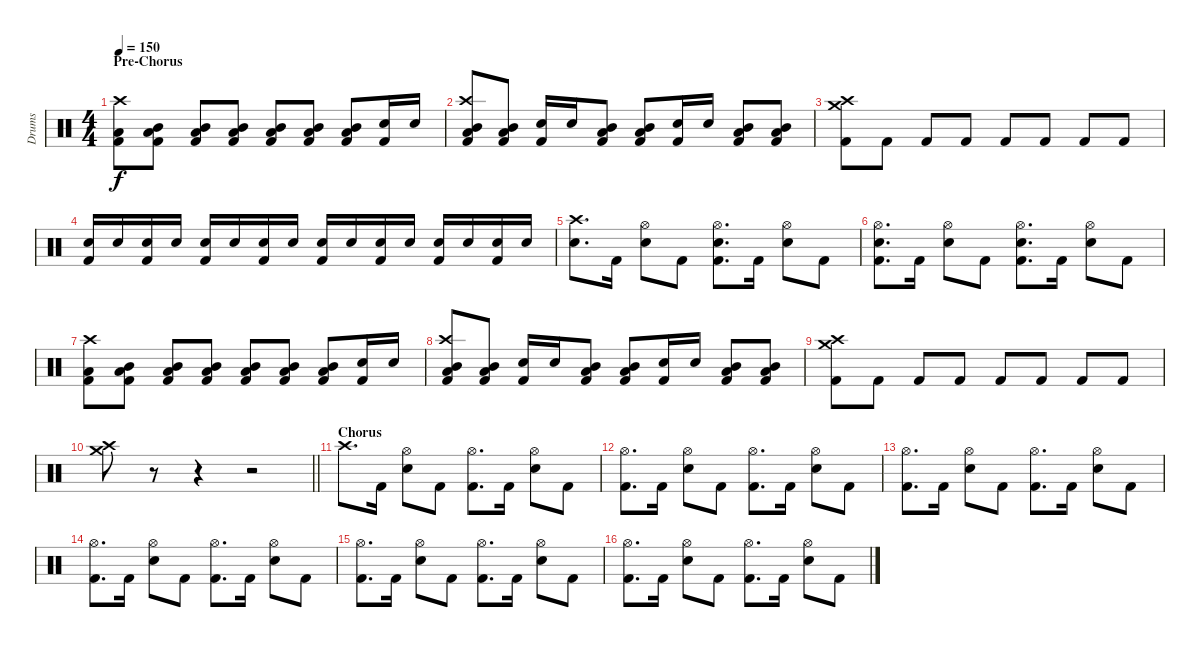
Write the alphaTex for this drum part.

\track ("Drums" "Drums") {instrument percussion}
\staff {score}
\articulation defaults
\ts (4 4)
\section ("" "Pre-Chorus")
\tempo 150
\clef neutral
\ks c
("Kick (hit) 2" "Low Tom (hit)" "Crash high (hit)").8{dy f} ("Kick (hit) 2" "Low Tom (hit)" "Mid Tom (hit)").8 ("Kick (hit) 2" "Low Tom (hit)" "Mid Tom (hit)").8 ("Kick (hit) 2" "Low Tom (hit)" "Mid Tom (hit)").8 ("Kick (hit) 2" "Low Tom (hit)" "Mid Tom (hit)").8 ("Kick (hit) 2" "Low Tom (hit)" "Mid Tom (hit)").8 ("Kick (hit) 2" "Low Tom (hit)" "Mid Tom (hit)").8 ("Kick (hit) 2" "Snare (hit) 2").16 "Snare (hit) 2".16 |
("Kick (hit) 2" "Low Tom (hit)" "Mid Tom (hit)" "Crash high (hit)").8 ("Kick (hit) 2" "Low Tom (hit)" "Mid Tom (hit)").8 ("Kick (hit) 2" "Snare (hit) 2").16 "Snare (hit) 2".16 ("Kick (hit) 2" "Low Tom (hit)" "Mid Tom (hit)").8 ("Kick (hit) 2" "Low Tom (hit)" "Mid Tom (hit)").8 ("Kick (hit) 2" "Snare (hit) 2").16 "Snare (hit) 2".16 ("Kick (hit) 2" "Low Tom (hit)" "Mid Tom (hit)").8 ("Kick (hit) 2" "Low Tom (hit)" "Mid Tom (hit)").8 |
("Kick (hit) 2" "Crash high (hit)" "Crash medium (hit)").8 "Kick (hit) 2".8 "Kick (hit) 2".8 "Kick (hit) 2".8 "Kick (hit) 2".8 "Kick (hit) 2".8 "Kick (hit) 2".8 "Kick (hit) 2".8 |
("Kick (hit) 2" "Snare (hit) 2").16 "Snare (hit) 2".16 ("Kick (hit) 2" "Snare (hit) 2").16 "Snare (hit) 2".16 ("Kick (hit) 2" "Snare (hit) 2").16 "Snare (hit) 2".16 ("Kick (hit) 2" "Snare (hit) 2").16 "Snare (hit) 2".16 ("Kick (hit) 2" "Snare (hit) 2").16 "Snare (hit) 2".16 ("Kick (hit) 2" "Snare (hit) 2").16 "Snare (hit) 2".16 ("Kick (hit) 2" "Snare (hit) 2").16 "Snare (hit) 2".16 ("Kick (hit) 2" "Snare (hit) 2").16 "Snare (hit) 2".16 |
("Snare (hit) 2" "Crash high (hit)").8{d} "Kick (hit) 2".16 ("Snare (hit) 2" "Hi-Hat (open)").8 "Kick (hit) 2".8 ("Kick (hit) 2" "Snare (hit) 2" "Hi-Hat (open)").8{d} "Kick (hit) 2".16 ("Snare (hit) 2" "Hi-Hat (open)").8 "Kick (hit) 2".8 |
("Kick (hit) 2" "Snare (hit) 2" "Hi-Hat (open)").8{d} "Kick (hit) 2".16 ("Snare (hit) 2" "Hi-Hat (open)").8 "Kick (hit) 2".8 ("Kick (hit) 2" "Snare (hit) 2" "Hi-Hat (open)").8{d} "Kick (hit) 2".16 ("Snare (hit) 2" "Hi-Hat (open)").8 "Kick (hit) 2".8 |
("Kick (hit) 2" "Low Tom (hit)" "Crash high (hit)").8 ("Kick (hit) 2" "Low Tom (hit)" "Mid Tom (hit)").8 ("Kick (hit) 2" "Low Tom (hit)" "Mid Tom (hit)").8 ("Kick (hit) 2" "Low Tom (hit)" "Mid Tom (hit)").8 ("Kick (hit) 2" "Low Tom (hit)" "Mid Tom (hit)").8 ("Kick (hit) 2" "Low Tom (hit)" "Mid Tom (hit)").8 ("Kick (hit) 2" "Low Tom (hit)" "Mid Tom (hit)").8 ("Kick (hit) 2" "Snare (hit) 2").16 "Snare (hit) 2".16 |
("Kick (hit) 2" "Low Tom (hit)" "Mid Tom (hit)" "Crash high (hit)").8 ("Kick (hit) 2" "Low Tom (hit)" "Mid Tom (hit)").8 ("Kick (hit) 2" "Snare (hit) 2").16 "Snare (hit) 2".16 ("Kick (hit) 2" "Low Tom (hit)" "Mid Tom (hit)").8 ("Kick (hit) 2" "Low Tom (hit)" "Mid Tom (hit)").8 ("Kick (hit) 2" "Snare (hit) 2").16 "Snare (hit) 2".16 ("Kick (hit) 2" "Low Tom (hit)" "Mid Tom (hit)").8 ("Kick (hit) 2" "Low Tom (hit)" "Mid Tom (hit)").8 |
("Kick (hit) 2" "Crash high (hit)" "Crash medium (hit)").8 "Kick (hit) 2".8 "Kick (hit) 2".8 "Kick (hit) 2".8 "Kick (hit) 2".8 "Kick (hit) 2".8 "Kick (hit) 2".8 "Kick (hit) 2".8 |
\barLineRight lightlight
("Crash medium (hit)" "Crash high (hit)").8 r.8 r.4 r.2 |
\section ("" "Chorus")
"Crash high (hit)".8{d} "Kick (hit) 2".16 ("Snare (hit) 2" "Hi-Hat (open)").8 "Kick (hit) 2".8 ("Kick (hit) 2" "Hi-Hat (open)").8{d} "Kick (hit) 2".16 ("Snare (hit) 2" "Hi-Hat (open)").8 "Kick (hit) 2".8 |
("Kick (hit) 2" "Hi-Hat (open)").8{d} "Kick (hit) 2".16 ("Snare (hit) 2" "Hi-Hat (open)").8 "Kick (hit) 2".8 ("Kick (hit) 2" "Hi-Hat (open)").8{d} "Kick (hit) 2".16 ("Snare (hit) 2" "Hi-Hat (open)").8 "Kick (hit) 2".8 |
("Kick (hit) 2" "Hi-Hat (open)").8{d} "Kick (hit) 2".16 ("Snare (hit) 2" "Hi-Hat (open)").8 "Kick (hit) 2".8 ("Kick (hit) 2" "Hi-Hat (open)").8{d} "Kick (hit) 2".16 ("Snare (hit) 2" "Hi-Hat (open)").8 "Kick (hit) 2".8 |
("Kick (hit) 2" "Hi-Hat (open)").8{d} "Kick (hit) 2".16 ("Snare (hit) 2" "Hi-Hat (open)").8 "Kick (hit) 2".8 ("Kick (hit) 2" "Hi-Hat (open)").8{d} "Kick (hit) 2".16 ("Snare (hit) 2" "Hi-Hat (open)").8 "Kick (hit) 2".8 |
("Kick (hit) 2" "Hi-Hat (open)").8{d} "Kick (hit) 2".16 ("Snare (hit) 2" "Hi-Hat (open)").8 "Kick (hit) 2".8 ("Kick (hit) 2" "Hi-Hat (open)").8{d} "Kick (hit) 2".16 ("Snare (hit) 2" "Hi-Hat (open)").8 "Kick (hit) 2".8 |
("Kick (hit) 2" "Hi-Hat (open)").8{d} "Kick (hit) 2".16 ("Snare (hit) 2" "Hi-Hat (open)").8 "Kick (hit) 2".8 ("Kick (hit) 2" "Hi-Hat (open)").8{d} "Kick (hit) 2".16 ("Snare (hit) 2" "Hi-Hat (open)").8 "Kick (hit) 2".8
